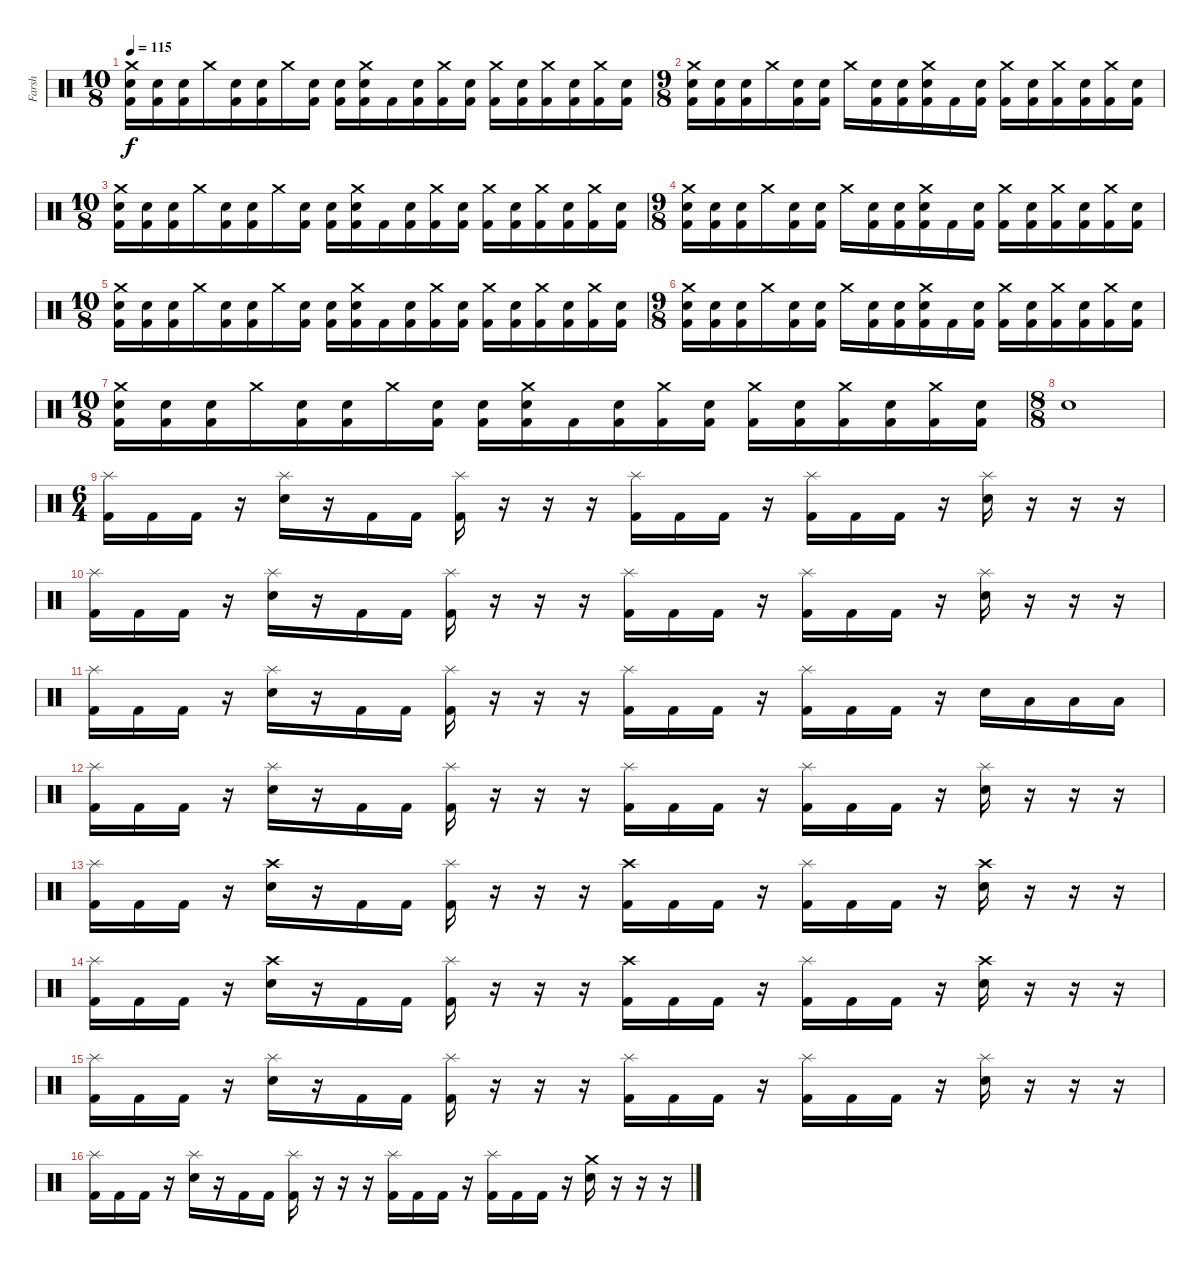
\track ("Farsh" "Farsh") {instrument percussion}
\staff {score}
\articulation defaults
\ts (10 8)
\tempo 115
\clef neutral
\ks c
("Crash medium (hit)" "Electric Snare (hit)" "Kick (hit) 2").16{dy f} ("Electric Snare (hit)" "Kick (hit) 2").16 ("Electric Snare (hit)" "Kick (hit) 2").16 "Crash medium (hit)".16 ("Electric Snare (hit)" "Kick (hit) 2").16 ("Electric Snare (hit)" "Kick (hit) 2").16 "Crash medium (hit)".16 ("Electric Snare (hit)" "Kick (hit) 2").16 ("Electric Snare (hit)" "Kick (hit) 2").16 ("Crash medium (hit)" "Electric Snare (hit)" "Kick (hit) 2").16 "Kick (hit) 2".16 ("Electric Snare (hit)" "Kick (hit) 2").16 ("Crash medium (hit)" "Kick (hit) 2").16 ("Electric Snare (hit)" "Kick (hit) 2").16 ("Crash medium (hit)" "Kick (hit) 2").16 ("Electric Snare (hit)" "Kick (hit) 2").16 ("Crash medium (hit)" "Kick (hit) 2").16 ("Electric Snare (hit)" "Kick (hit) 2").16 ("Crash medium (hit)" "Kick (hit) 2").16 ("Electric Snare (hit)" "Kick (hit) 2").16 |
\ts (9 8)
("Crash medium (hit)" "Electric Snare (hit)" "Kick (hit) 2").16 ("Electric Snare (hit)" "Kick (hit) 2").16 ("Electric Snare (hit)" "Kick (hit) 2").16 "Crash medium (hit)".16 ("Electric Snare (hit)" "Kick (hit) 2").16 ("Electric Snare (hit)" "Kick (hit) 2").16 "Crash medium (hit)".16 ("Electric Snare (hit)" "Kick (hit) 2").16 ("Electric Snare (hit)" "Kick (hit) 2").16 ("Crash medium (hit)" "Electric Snare (hit)" "Kick (hit) 2").16 "Kick (hit) 2".16 ("Electric Snare (hit)" "Kick (hit) 2").16 ("Crash medium (hit)" "Kick (hit) 2").16 ("Electric Snare (hit)" "Kick (hit) 2").16 ("Crash medium (hit)" "Kick (hit) 2").16 ("Electric Snare (hit)" "Kick (hit) 2").16 ("Crash medium (hit)" "Kick (hit) 2").16 ("Electric Snare (hit)" "Kick (hit) 2").16 |
\ts (10 8)
("Crash medium (hit)" "Electric Snare (hit)" "Kick (hit) 2").16 ("Electric Snare (hit)" "Kick (hit) 2").16 ("Electric Snare (hit)" "Kick (hit) 2").16 "Crash medium (hit)".16 ("Electric Snare (hit)" "Kick (hit) 2").16 ("Electric Snare (hit)" "Kick (hit) 2").16 "Crash medium (hit)".16 ("Electric Snare (hit)" "Kick (hit) 2").16 ("Electric Snare (hit)" "Kick (hit) 2").16 ("Crash medium (hit)" "Electric Snare (hit)" "Kick (hit) 2").16 "Kick (hit) 2".16 ("Electric Snare (hit)" "Kick (hit) 2").16 ("Crash medium (hit)" "Kick (hit) 2").16 ("Electric Snare (hit)" "Kick (hit) 2").16 ("Crash medium (hit)" "Kick (hit) 2").16 ("Electric Snare (hit)" "Kick (hit) 2").16 ("Crash medium (hit)" "Kick (hit) 2").16 ("Electric Snare (hit)" "Kick (hit) 2").16 ("Crash medium (hit)" "Kick (hit) 2").16 ("Electric Snare (hit)" "Kick (hit) 2").16 |
\ts (9 8)
("Crash medium (hit)" "Electric Snare (hit)" "Kick (hit) 2").16 ("Electric Snare (hit)" "Kick (hit) 2").16 ("Electric Snare (hit)" "Kick (hit) 2").16 "Crash medium (hit)".16 ("Electric Snare (hit)" "Kick (hit) 2").16 ("Electric Snare (hit)" "Kick (hit) 2").16 "Crash medium (hit)".16 ("Electric Snare (hit)" "Kick (hit) 2").16 ("Electric Snare (hit)" "Kick (hit) 2").16 ("Crash medium (hit)" "Electric Snare (hit)" "Kick (hit) 2").16 "Kick (hit) 2".16 ("Electric Snare (hit)" "Kick (hit) 2").16 ("Crash medium (hit)" "Kick (hit) 2").16 ("Electric Snare (hit)" "Kick (hit) 2").16 ("Crash medium (hit)" "Kick (hit) 2").16 ("Electric Snare (hit)" "Kick (hit) 2").16 ("Crash medium (hit)" "Kick (hit) 2").16 ("Electric Snare (hit)" "Kick (hit) 2").16 |
\ts (10 8)
("Crash medium (hit)" "Electric Snare (hit)" "Kick (hit) 2").16 ("Electric Snare (hit)" "Kick (hit) 2").16 ("Electric Snare (hit)" "Kick (hit) 2").16 "Crash medium (hit)".16 ("Electric Snare (hit)" "Kick (hit) 2").16 ("Electric Snare (hit)" "Kick (hit) 2").16 "Crash medium (hit)".16 ("Electric Snare (hit)" "Kick (hit) 2").16 ("Electric Snare (hit)" "Kick (hit) 2").16 ("Crash medium (hit)" "Electric Snare (hit)" "Kick (hit) 2").16 "Kick (hit) 2".16 ("Electric Snare (hit)" "Kick (hit) 2").16 ("Crash medium (hit)" "Kick (hit) 2").16 ("Electric Snare (hit)" "Kick (hit) 2").16 ("Crash medium (hit)" "Kick (hit) 2").16 ("Electric Snare (hit)" "Kick (hit) 2").16 ("Crash medium (hit)" "Kick (hit) 2").16 ("Electric Snare (hit)" "Kick (hit) 2").16 ("Crash medium (hit)" "Kick (hit) 2").16 ("Electric Snare (hit)" "Kick (hit) 2").16 |
\ts (9 8)
("Crash medium (hit)" "Electric Snare (hit)" "Kick (hit) 2").16 ("Electric Snare (hit)" "Kick (hit) 2").16 ("Electric Snare (hit)" "Kick (hit) 2").16 "Crash medium (hit)".16 ("Electric Snare (hit)" "Kick (hit) 2").16 ("Electric Snare (hit)" "Kick (hit) 2").16 "Crash medium (hit)".16 ("Electric Snare (hit)" "Kick (hit) 2").16 ("Electric Snare (hit)" "Kick (hit) 2").16 ("Crash medium (hit)" "Electric Snare (hit)" "Kick (hit) 2").16 "Kick (hit) 2".16 ("Electric Snare (hit)" "Kick (hit) 2").16 ("Crash medium (hit)" "Kick (hit) 2").16 ("Electric Snare (hit)" "Kick (hit) 2").16 ("Crash medium (hit)" "Kick (hit) 2").16 ("Electric Snare (hit)" "Kick (hit) 2").16 ("Crash medium (hit)" "Kick (hit) 2").16 ("Electric Snare (hit)" "Kick (hit) 2").16 |
\ts (10 8)
("Crash medium (hit)" "Electric Snare (hit)" "Kick (hit) 2").16 ("Electric Snare (hit)" "Kick (hit) 2").16 ("Electric Snare (hit)" "Kick (hit) 2").16 "Crash medium (hit)".16 ("Electric Snare (hit)" "Kick (hit) 2").16 ("Electric Snare (hit)" "Kick (hit) 2").16 "Crash medium (hit)".16 ("Electric Snare (hit)" "Kick (hit) 2").16 ("Electric Snare (hit)" "Kick (hit) 2").16 ("Crash medium (hit)" "Electric Snare (hit)" "Kick (hit) 2").16 "Kick (hit) 2".16 ("Electric Snare (hit)" "Kick (hit) 2").16 ("Crash medium (hit)" "Kick (hit) 2").16 ("Electric Snare (hit)" "Kick (hit) 2").16 ("Crash medium (hit)" "Kick (hit) 2").16 ("Electric Snare (hit)" "Kick (hit) 2").16 ("Crash medium (hit)" "Kick (hit) 2").16 ("Electric Snare (hit)" "Kick (hit) 2").16 ("Crash medium (hit)" "Kick (hit) 2").16 ("Electric Snare (hit)" "Kick (hit) 2").16 |
\ts (8 8)
"Electric Snare (hit)".1 |
\ts (6 4)
("Splash (hit)" "Kick (hit) 2").16 "Kick (hit) 2".16 "Kick (hit) 2".16 r.16 ("Splash (hit)" "Electric Snare (hit)").16 r.16 "Kick (hit) 2".16 "Kick (hit) 2".16 ("Splash (hit)" "Kick (hit) 2").16 r.16 r.16 r.16 ("Splash (hit)" "Kick (hit) 2").16 "Kick (hit) 2".16 "Kick (hit) 2".16 r.16 ("Splash (hit)" "Kick (hit) 2").16 "Kick (hit) 2".16 "Kick (hit) 2".16 r.16 ("Splash (hit)" "Electric Snare (hit)").16 r.16 r.16 r.16 |
("Splash (hit)" "Kick (hit) 2").16 "Kick (hit) 2".16 "Kick (hit) 2".16 r.16 ("Splash (hit)" "Electric Snare (hit)").16 r.16 "Kick (hit) 2".16 "Kick (hit) 2".16 ("Splash (hit)" "Kick (hit) 2").16 r.16 r.16 r.16 ("Splash (hit)" "Kick (hit) 2").16 "Kick (hit) 2".16 "Kick (hit) 2".16 r.16 ("Splash (hit)" "Kick (hit) 2").16 "Kick (hit) 2".16 "Kick (hit) 2".16 r.16 ("Splash (hit)" "Electric Snare (hit)").16 r.16 r.16 r.16 |
("Splash (hit)" "Kick (hit) 2").16 "Kick (hit) 2".16 "Kick (hit) 2".16 r.16 ("Splash (hit)" "Electric Snare (hit)").16 r.16 "Kick (hit) 2".16 "Kick (hit) 2".16 ("Splash (hit)" "Kick (hit) 2").16 r.16 r.16 r.16 ("Splash (hit)" "Kick (hit) 2").16 "Kick (hit) 2".16 "Kick (hit) 2".16 r.16 ("Splash (hit)" "Kick (hit) 2").16 "Kick (hit) 2".16 "Kick (hit) 2".16 r.16 "Electric Snare (hit)".16 "Low Tom (hit)".16 "Low Tom (hit)".16 "Low Tom (hit)".16 |
("Splash (hit)" "Kick (hit) 2").16 "Kick (hit) 2".16 "Kick (hit) 2".16 r.16 ("Splash (hit)" "Electric Snare (hit)").16 r.16 "Kick (hit) 2".16 "Kick (hit) 2".16 ("Splash (hit)" "Kick (hit) 2").16 r.16 r.16 r.16 ("Splash (hit)" "Kick (hit) 2").16 "Kick (hit) 2".16 "Kick (hit) 2".16 r.16 ("Splash (hit)" "Kick (hit) 2").16 "Kick (hit) 2".16 "Kick (hit) 2".16 r.16 ("Splash (hit)" "Electric Snare (hit)").16 r.16 r.16 r.16 |
("Splash (hit)" "Kick (hit) 2").16 "Kick (hit) 2".16 "Kick (hit) 2".16 r.16 ("Crash high (hit)" "Electric Snare (hit)").16 r.16 "Kick (hit) 2".16 "Kick (hit) 2".16 ("Splash (hit)" "Kick (hit) 2").16 r.16 r.16 r.16 ("Crash high (hit)" "Kick (hit) 2").16 "Kick (hit) 2".16 "Kick (hit) 2".16 r.16 ("Splash (hit)" "Kick (hit) 2").16 "Kick (hit) 2".16 "Kick (hit) 2".16 r.16 ("Crash high (hit)" "Electric Snare (hit)").16 r.16 r.16 r.16 |
("Splash (hit)" "Kick (hit) 2").16 "Kick (hit) 2".16 "Kick (hit) 2".16 r.16 ("Crash high (hit)" "Electric Snare (hit)").16 r.16 "Kick (hit) 2".16 "Kick (hit) 2".16 ("Splash (hit)" "Kick (hit) 2").16 r.16 r.16 r.16 ("Crash high (hit)" "Kick (hit) 2").16 "Kick (hit) 2".16 "Kick (hit) 2".16 r.16 ("Splash (hit)" "Kick (hit) 2").16 "Kick (hit) 2".16 "Kick (hit) 2".16 r.16 ("Crash high (hit)" "Electric Snare (hit)").16 r.16 r.16 r.16 |
("Splash (hit)" "Kick (hit) 2").16 "Kick (hit) 2".16 "Kick (hit) 2".16 r.16 ("Splash (hit)" "Electric Snare (hit)").16 r.16 "Kick (hit) 2".16 "Kick (hit) 2".16 ("Splash (hit)" "Kick (hit) 2").16 r.16 r.16 r.16 ("Splash (hit)" "Kick (hit) 2").16 "Kick (hit) 2".16 "Kick (hit) 2".16 r.16 ("Splash (hit)" "Kick (hit) 2").16 "Kick (hit) 2".16 "Kick (hit) 2".16 r.16 ("Splash (hit)" "Electric Snare (hit)").16 r.16 r.16 r.16 |
("Splash (hit)" "Kick (hit) 2").16 "Kick (hit) 2".16 "Kick (hit) 2".16 r.16 ("Splash (hit)" "Electric Snare (hit)").16 r.16 "Kick (hit) 2".16 "Kick (hit) 2".16 ("Splash (hit)" "Kick (hit) 2").16 r.16 r.16 r.16 ("Splash (hit)" "Kick (hit) 2").16 "Kick (hit) 2".16 "Kick (hit) 2".16 r.16 ("Splash (hit)" "Kick (hit) 2").16 "Kick (hit) 2".16 "Kick (hit) 2".16 r.16 ("Crash medium (hit)" "Electric Snare (hit)").16 r.16 r.16 r.16
